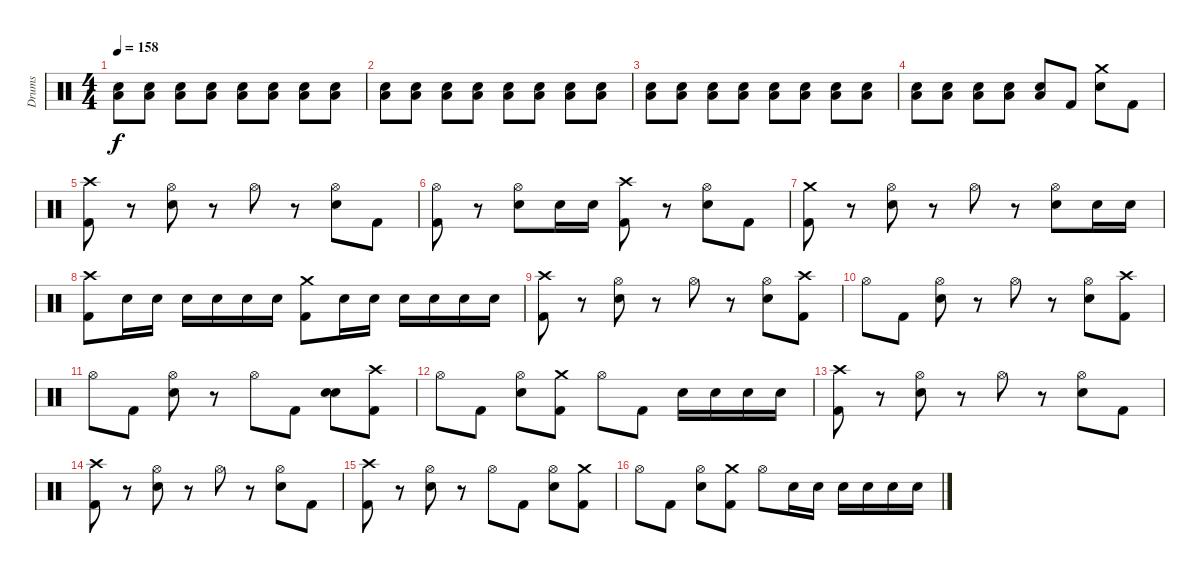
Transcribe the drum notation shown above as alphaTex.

\track ("Drums" "Drums") {instrument percussion}
\staff {score}
\articulation defaults
\ts (4 4)
\tempo 158
\clef neutral
\ks c
("Snare (hit) 2" "Low Floor Tom (hit)").8{dy f} ("Snare (hit) 2" "Low Floor Tom (hit)").8 ("Snare (hit) 2" "Low Floor Tom (hit)").8 ("Snare (hit) 2" "Low Floor Tom (hit)").8 ("Snare (hit) 2" "Low Floor Tom (hit)").8 ("Snare (hit) 2" "Low Floor Tom (hit)").8 ("Snare (hit) 2" "Low Floor Tom (hit)").8 ("Snare (hit) 2" "Low Floor Tom (hit)").8 |
("Snare (hit) 2" "Low Floor Tom (hit)").8 ("Snare (hit) 2" "Low Floor Tom (hit)").8 ("Snare (hit) 2" "Low Floor Tom (hit)").8 ("Snare (hit) 2" "Low Floor Tom (hit)").8 ("Snare (hit) 2" "Low Floor Tom (hit)").8 ("Snare (hit) 2" "Low Floor Tom (hit)").8 ("Snare (hit) 2" "Low Floor Tom (hit)").8 ("Snare (hit) 2" "Low Floor Tom (hit)").8 |
("Snare (hit) 2" "Low Floor Tom (hit)").8 ("Snare (hit) 2" "Low Floor Tom (hit)").8 ("Snare (hit) 2" "Low Floor Tom (hit)").8 ("Snare (hit) 2" "Low Floor Tom (hit)").8 ("Snare (hit) 2" "Low Floor Tom (hit)").8 ("Snare (hit) 2" "Low Floor Tom (hit)").8 ("Snare (hit) 2" "Low Floor Tom (hit)").8 ("Snare (hit) 2" "Low Floor Tom (hit)").8 |
("Snare (hit) 2" "Low Floor Tom (hit)").8 ("Snare (hit) 2" "Low Floor Tom (hit)").8 ("Snare (hit) 2" "Low Floor Tom (hit)").8 ("Snare (hit) 2" "Low Floor Tom (hit)").8 ("Snare (hit) 2" "Low Floor Tom (hit)").8 "Kick (hit) 2".8 ("Crash medium (hit)" "Snare (hit) 2").8 "Kick (hit) 2".8 |
("Crash high (hit)" "Kick (hit) 2").8 r.8 ("Hi-Hat (open)" "Snare (hit) 2").8 r.8 "Hi-Hat (open)".8 r.8 ("Hi-Hat (open)" "Snare (hit) 2").8 "Kick (hit) 2".8 |
("Hi-Hat (open)" "Kick (hit) 2").8 r.8 ("Hi-Hat (open)" "Snare (hit) 2").8 "Snare (hit) 2".16 "Snare (hit) 2".16 ("Crash high (hit)" "Kick (hit) 2").8 r.8 ("Hi-Hat (open)" "Snare (hit) 2").8 "Kick (hit) 2".8 |
("Crash medium (hit)" "Kick (hit) 2").8 r.8 ("Hi-Hat (open)" "Snare (hit) 2").8 r.8 "Hi-Hat (open)".8 r.8 ("Hi-Hat (open)" "Snare (hit) 2").8 "Snare (hit) 2".16 "Snare (hit) 2".16 |
("Crash high (hit)" "Kick (hit) 2").8 "Snare (hit) 2".16 "Snare (hit) 2".16 "Snare (hit) 2".16 "Snare (hit) 2".16 "Snare (hit) 2".16 "Snare (hit) 2".16 ("Crash medium (hit)" "Kick (hit) 2").8 "Snare (hit) 2".16 "Snare (hit) 2".16 "Snare (hit) 2".16 "Snare (hit) 2".16 "Snare (hit) 2".16 "Snare (hit) 2".16 |
("Crash high (hit)" "Kick (hit) 2").8 r.8 ("Hi-Hat (open)" "Snare (hit) 2").8 r.8 "Hi-Hat (open)".8 r.8 ("Hi-Hat (open)" "Snare (hit) 2").8 ("Crash high (hit)" "Kick (hit) 2").8 |
"Hi-Hat (open)".8 "Kick (hit) 2".8 ("Hi-Hat (open)" "Snare (hit) 2").8 r.8 "Hi-Hat (open)".8 r.8 ("Hi-Hat (open)" "Snare (hit) 2").8 ("Crash high (hit)" "Kick (hit) 2").8 |
"Hi-Hat (open)".8 "Kick (hit) 2".8 ("Hi-Hat (open)" "Snare (hit) 2").8 r.8 "Hi-Hat (open)".8 "Kick (hit) 2".8 ("Electric Snare (hit)" "Snare (hit) 2").8 ("Crash high (hit)" "Kick (hit) 2").8 |
"Hi-Hat (open)".8 "Kick (hit) 2".8 ("Hi-Hat (open)" "Snare (hit) 2").8 ("Crash medium (hit)" "Kick (hit) 2").8 "Hi-Hat (open)".8 "Kick (hit) 2".8 "Snare (hit) 2".16 "Snare (hit) 2".16 "Snare (hit) 2".16 "Snare (hit) 2".16 |
("Crash high (hit)" "Kick (hit) 2").8 r.8 ("Hi-Hat (open)" "Snare (hit) 2").8 r.8 "Hi-Hat (open)".8 r.8 ("Hi-Hat (open)" "Snare (hit) 2").8 "Kick (hit) 2".8 |
("Crash high (hit)" "Kick (hit) 2").8 r.8 ("Hi-Hat (open)" "Snare (hit) 2").8 r.8 "Hi-Hat (open)".8 r.8 ("Hi-Hat (open)" "Snare (hit) 2").8 "Kick (hit) 2".8 |
("Crash high (hit)" "Kick (hit) 2").8 r.8 ("Hi-Hat (open)" "Snare (hit) 2").8 r.8 "Hi-Hat (open)".8 "Kick (hit) 2".8 ("Hi-Hat (open)" "Snare (hit) 2").8 ("Crash medium (hit)" "Kick (hit) 2").8 |
"Hi-Hat (open)".8 "Kick (hit) 2".8 ("Hi-Hat (open)" "Snare (hit) 2").8 ("Crash medium (hit)" "Kick (hit) 2").8 "Hi-Hat (open)".8 "Snare (hit) 2".16 "Snare (hit) 2".16 "Snare (hit) 2".16 "Snare (hit) 2".16 "Snare (hit) 2".16 "Snare (hit) 2".16
